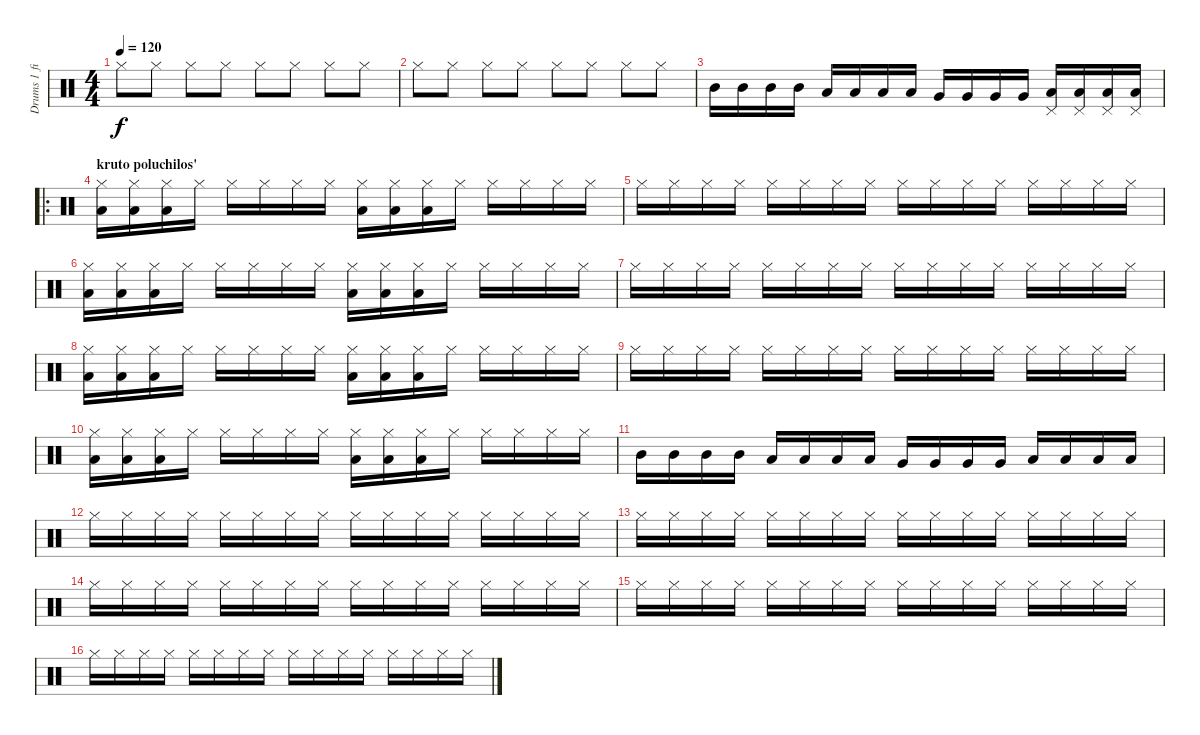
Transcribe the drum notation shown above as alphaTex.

\track ("Drums 1 filler" "Drums 1 fi") {instrument percussion}
\staff {score}
\articulation defaults
\ts (4 4)
\tempo 120
\clef neutral
\ks c "Hi-Hat (closed)".8{dy f} "Hi-Hat (closed)".8 "Hi-Hat (closed)".8 "Hi-Hat (closed)".8 "Hi-Hat (closed)".8 "Hi-Hat (closed)".8 "Hi-Hat (closed)".8 "Hi-Hat (closed)".8
|
"Hi-Hat (closed)".8 "Hi-Hat (closed)".8 "Hi-Hat (closed)".8 "Hi-Hat (closed)".8 "Hi-Hat (closed)".8 "Hi-Hat (closed)".8 "Hi-Hat (closed)".8 "Hi-Hat (closed)".8 |
"Mid Tom (hit)".16 "Mid Tom (hit)".16 "Mid Tom (hit)".16 "Mid Tom (hit)".16 "Low Tom (hit)".16 "Low Tom (hit)".16 "Low Tom (hit)".16 "Low Tom (hit)".16 "Very Low Tom (hit)".16 "Very Low Tom (hit)".16 "Very Low Tom (hit)".16 "Very Low Tom (hit)".16 ("Low Floor Tom (hit)" "Pedal Hi-Hat (hit)").16 ("Low Floor Tom (hit)" "Pedal Hi-Hat (hit)").16 ("Low Floor Tom (hit)" "Pedal Hi-Hat (hit)").16 ("Low Floor Tom (hit)" "Pedal Hi-Hat (hit)").16 |
\ro
\section ("" "kruto poluchilos'")
("Hi-Hat (closed)" "Low Tom (hit)").16 ("Hi-Hat (closed)" "Low Tom (hit)").16 ("Hi-Hat (closed)" "Low Tom (hit)").16 "Hi-Hat (closed)".16 "Hi-Hat (closed)".16 "Hi-Hat (closed)".16 "Hi-Hat (closed)".16 "Hi-Hat (closed)".16 ("Hi-Hat (closed)" "Low Tom (hit)").16 ("Hi-Hat (closed)" "Low Tom (hit)").16 ("Hi-Hat (closed)" "Low Tom (hit)").16 "Hi-Hat (closed)".16 "Hi-Hat (closed)".16 "Hi-Hat (closed)".16 "Hi-Hat (closed)".16 "Hi-Hat (closed)".16 |
"Hi-Hat (closed)".16 "Hi-Hat (closed)".16 "Hi-Hat (closed)".16 "Hi-Hat (closed)".16 "Hi-Hat (closed)".16 "Hi-Hat (closed)".16 "Hi-Hat (closed)".16 "Hi-Hat (closed)".16 "Hi-Hat (closed)".16 "Hi-Hat (closed)".16 "Hi-Hat (closed)".16 "Hi-Hat (closed)".16 "Hi-Hat (closed)".16 "Hi-Hat (closed)".16 "Hi-Hat (closed)".16 "Hi-Hat (closed)".16 |
("Hi-Hat (closed)" "Low Tom (hit)").16 ("Hi-Hat (closed)" "Low Tom (hit)").16 ("Hi-Hat (closed)" "Low Tom (hit)").16 "Hi-Hat (closed)".16 "Hi-Hat (closed)".16 "Hi-Hat (closed)".16 "Hi-Hat (closed)".16 "Hi-Hat (closed)".16 ("Hi-Hat (closed)" "Low Tom (hit)").16 ("Hi-Hat (closed)" "Low Tom (hit)").16 ("Hi-Hat (closed)" "Low Tom (hit)").16 "Hi-Hat (closed)".16 "Hi-Hat (closed)".16 "Hi-Hat (closed)".16 "Hi-Hat (closed)".16 "Hi-Hat (closed)".16 |
"Hi-Hat (closed)".16 "Hi-Hat (closed)".16 "Hi-Hat (closed)".16 "Hi-Hat (closed)".16 "Hi-Hat (closed)".16 "Hi-Hat (closed)".16 "Hi-Hat (closed)".16 "Hi-Hat (closed)".16 "Hi-Hat (closed)".16 "Hi-Hat (closed)".16 "Hi-Hat (closed)".16 "Hi-Hat (closed)".16 "Hi-Hat (closed)".16 "Hi-Hat (closed)".16 "Hi-Hat (closed)".16 "Hi-Hat (closed)".16 |
("Hi-Hat (closed)" "Low Tom (hit)").16 ("Hi-Hat (closed)" "Low Tom (hit)").16 ("Hi-Hat (closed)" "Low Tom (hit)").16 "Hi-Hat (closed)".16 "Hi-Hat (closed)".16 "Hi-Hat (closed)".16 "Hi-Hat (closed)".16 "Hi-Hat (closed)".16 ("Hi-Hat (closed)" "Low Tom (hit)").16 ("Hi-Hat (closed)" "Low Tom (hit)").16 ("Hi-Hat (closed)" "Low Tom (hit)").16 "Hi-Hat (closed)".16 "Hi-Hat (closed)".16 "Hi-Hat (closed)".16 "Hi-Hat (closed)".16 "Hi-Hat (closed)".16 |
"Hi-Hat (closed)".16 "Hi-Hat (closed)".16 "Hi-Hat (closed)".16 "Hi-Hat (closed)".16 "Hi-Hat (closed)".16 "Hi-Hat (closed)".16 "Hi-Hat (closed)".16 "Hi-Hat (closed)".16 "Hi-Hat (closed)".16 "Hi-Hat (closed)".16 "Hi-Hat (closed)".16 "Hi-Hat (closed)".16 "Hi-Hat (closed)".16 "Hi-Hat (closed)".16 "Hi-Hat (closed)".16 "Hi-Hat (closed)".16 |
("Hi-Hat (closed)" "Low Tom (hit)").16 ("Hi-Hat (closed)" "Low Tom (hit)").16 ("Hi-Hat (closed)" "Low Tom (hit)").16 "Hi-Hat (closed)".16 "Hi-Hat (closed)".16 "Hi-Hat (closed)".16 "Hi-Hat (closed)".16 "Hi-Hat (closed)".16 ("Hi-Hat (closed)" "Low Tom (hit)").16 ("Hi-Hat (closed)" "Low Tom (hit)").16 ("Hi-Hat (closed)" "Low Tom (hit)").16 "Hi-Hat (closed)".16 "Hi-Hat (closed)".16 "Hi-Hat (closed)".16 "Hi-Hat (closed)".16 "Hi-Hat (closed)".16 |
"Mid Tom (hit)".16 "Mid Tom (hit)".16 "Mid Tom (hit)".16 "Mid Tom (hit)".16 "Low Tom (hit)".16 "Low Tom (hit)".16 "Low Tom (hit)".16 "Low Tom (hit)".16 "Very Low Tom (hit)".16 "Very Low Tom (hit)".16 "Very Low Tom (hit)".16 "Very Low Tom (hit)".16 "Low Floor Tom (hit)".16 "Low Floor Tom (hit)".16 "Low Floor Tom (hit)".16 "Low Floor Tom (hit)".16 |
"Hi-Hat (closed)".16 "Hi-Hat (closed)".16 "Hi-Hat (closed)".16 "Hi-Hat (closed)".16 "Hi-Hat (closed)".16 "Hi-Hat (closed)".16 "Hi-Hat (closed)".16 "Hi-Hat (closed)".16 "Hi-Hat (closed)".16 "Hi-Hat (closed)".16 "Hi-Hat (closed)".16 "Hi-Hat (closed)".16 "Hi-Hat (closed)".16 "Hi-Hat (closed)".16 "Hi-Hat (closed)".16 "Hi-Hat (closed)".16 |
"Hi-Hat (closed)".16 "Hi-Hat (closed)".16 "Hi-Hat (closed)".16 "Hi-Hat (closed)".16 "Hi-Hat (closed)".16 "Hi-Hat (closed)".16 "Hi-Hat (closed)".16 "Hi-Hat (closed)".16 "Hi-Hat (closed)".16 "Hi-Hat (closed)".16 "Hi-Hat (closed)".16 "Hi-Hat (closed)".16 "Hi-Hat (closed)".16 "Hi-Hat (closed)".16 "Hi-Hat (closed)".16 "Hi-Hat (closed)".16 |
"Hi-Hat (closed)".16 "Hi-Hat (closed)".16 "Hi-Hat (closed)".16 "Hi-Hat (closed)".16 "Hi-Hat (closed)".16 "Hi-Hat (closed)".16 "Hi-Hat (closed)".16 "Hi-Hat (closed)".16 "Hi-Hat (closed)".16 "Hi-Hat (closed)".16 "Hi-Hat (closed)".16 "Hi-Hat (closed)".16 "Hi-Hat (closed)".16 "Hi-Hat (closed)".16 "Hi-Hat (closed)".16 "Hi-Hat (closed)".16 |
"Hi-Hat (closed)".16 "Hi-Hat (closed)".16 "Hi-Hat (closed)".16 "Hi-Hat (closed)".16 "Hi-Hat (closed)".16 "Hi-Hat (closed)".16 "Hi-Hat (closed)".16 "Hi-Hat (closed)".16 "Hi-Hat (closed)".16 "Hi-Hat (closed)".16 "Hi-Hat (closed)".16 "Hi-Hat (closed)".16 "Hi-Hat (closed)".16 "Hi-Hat (closed)".16 "Hi-Hat (closed)".16 "Hi-Hat (closed)".16 |
"Hi-Hat (closed)".16 "Hi-Hat (closed)".16 "Hi-Hat (closed)".16 "Hi-Hat (closed)".16 "Hi-Hat (closed)".16 "Hi-Hat (closed)".16 "Hi-Hat (closed)".16 "Hi-Hat (closed)".16 "Hi-Hat (closed)".16 "Hi-Hat (closed)".16 "Hi-Hat (closed)".16 "Hi-Hat (closed)".16 "Hi-Hat (closed)".16 "Hi-Hat (closed)".16 "Hi-Hat (closed)".16 "Hi-Hat (closed)".16
